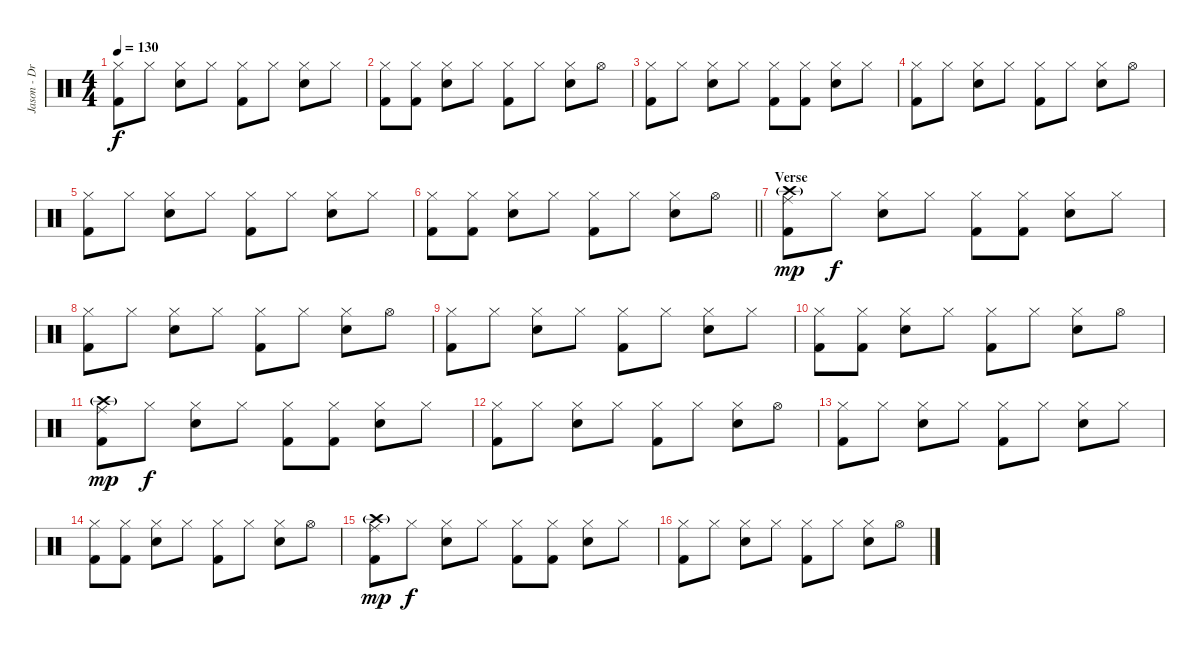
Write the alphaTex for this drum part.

\track ("Jason - Drums" "Jason - Dr") {instrument percussion}
\staff {score}
\articulation defaults
\ts (4 4)
\tempo 130
\clef neutral
\ks c
("Hi-Hat (closed)" "Kick (hit) 2").8{dy f} "Hi-Hat (closed)".8 ("Hi-Hat (closed)" "Snare (hit) 2").8 "Hi-Hat (closed)".8 ("Hi-Hat (closed)" "Kick (hit) 2").8 "Hi-Hat (closed)".8 ("Hi-Hat (closed)" "Snare (hit) 2").8 "Hi-Hat (closed)".8 |
("Hi-Hat (closed)" "Kick (hit) 2").8 ("Hi-Hat (closed)" "Kick (hit) 2").8 ("Hi-Hat (closed)" "Snare (hit) 2").8 "Hi-Hat (closed)".8 ("Hi-Hat (closed)" "Kick (hit) 2").8 "Hi-Hat (closed)".8 ("Hi-Hat (closed)" "Snare (hit) 2").8 "Hi-Hat (open)".8 |
("Hi-Hat (closed)" "Kick (hit) 2").8 "Hi-Hat (closed)".8 ("Hi-Hat (closed)" "Snare (hit) 2").8 "Hi-Hat (closed)".8 ("Hi-Hat (closed)" "Kick (hit) 2").8 ("Hi-Hat (closed)" "Kick (hit) 2").8 ("Hi-Hat (closed)" "Snare (hit) 2").8 "Hi-Hat (closed)".8 |
("Hi-Hat (closed)" "Kick (hit) 2").8 "Hi-Hat (closed)".8 ("Hi-Hat (closed)" "Snare (hit) 2").8 "Hi-Hat (closed)".8 ("Hi-Hat (closed)" "Kick (hit) 2").8 "Hi-Hat (closed)".8 ("Hi-Hat (closed)" "Snare (hit) 2").8 "Hi-Hat (open)".8 |
("Hi-Hat (closed)" "Kick (hit) 2").8 "Hi-Hat (closed)".8 ("Hi-Hat (closed)" "Snare (hit) 2").8 "Hi-Hat (closed)".8 ("Hi-Hat (closed)" "Kick (hit) 2").8 "Hi-Hat (closed)".8 ("Hi-Hat (closed)" "Snare (hit) 2").8 "Hi-Hat (closed)".8 |
\barLineRight lightlight
("Hi-Hat (closed)" "Kick (hit) 2").8 ("Hi-Hat (closed)" "Kick (hit) 2").8 ("Hi-Hat (closed)" "Snare (hit) 2").8 "Hi-Hat (closed)".8 ("Hi-Hat (closed)" "Kick (hit) 2").8 "Hi-Hat (closed)".8 ("Hi-Hat (closed)" "Snare (hit) 2").8 "Hi-Hat (open)".8 |
\section ("" "Verse")
("Crash high (hit)"{g} "Ride (middle)" "Kick (hit) 2").8{dy mp} "Hi-Hat (closed)".8{dy f} ("Hi-Hat (closed)" "Snare (hit) 2").8 "Hi-Hat (closed)".8 ("Hi-Hat (closed)" "Kick (hit) 2").8 ("Hi-Hat (closed)" "Kick (hit) 2").8 ("Hi-Hat (closed)" "Snare (hit) 2").8 "Hi-Hat (closed)".8 |
("Hi-Hat (closed)" "Kick (hit) 2").8 "Hi-Hat (closed)".8 ("Hi-Hat (closed)" "Snare (hit) 2").8 "Hi-Hat (closed)".8 ("Hi-Hat (closed)" "Kick (hit) 2").8 "Hi-Hat (closed)".8 ("Hi-Hat (closed)" "Snare (hit) 2").8 "Hi-Hat (open)".8 |
("Hi-Hat (closed)" "Kick (hit) 2").8 "Hi-Hat (closed)".8 ("Hi-Hat (closed)" "Snare (hit) 2").8 "Hi-Hat (closed)".8 ("Hi-Hat (closed)" "Kick (hit) 2").8 "Hi-Hat (closed)".8 ("Hi-Hat (closed)" "Snare (hit) 2").8 "Hi-Hat (closed)".8 |
("Hi-Hat (closed)" "Kick (hit) 2").8 ("Hi-Hat (closed)" "Kick (hit) 2").8 ("Hi-Hat (closed)" "Snare (hit) 2").8 "Hi-Hat (closed)".8 ("Hi-Hat (closed)" "Kick (hit) 2").8 "Hi-Hat (closed)".8 ("Hi-Hat (closed)" "Snare (hit) 2").8 "Hi-Hat (open)".8 |
("Crash high (hit)"{g} "Ride (middle)" "Kick (hit) 2").8{dy mp} "Hi-Hat (closed)".8{dy f} ("Hi-Hat (closed)" "Snare (hit) 2").8 "Hi-Hat (closed)".8 ("Hi-Hat (closed)" "Kick (hit) 2").8 ("Hi-Hat (closed)" "Kick (hit) 2").8 ("Hi-Hat (closed)" "Snare (hit) 2").8 "Hi-Hat (closed)".8 |
("Hi-Hat (closed)" "Kick (hit) 2").8 "Hi-Hat (closed)".8 ("Hi-Hat (closed)" "Snare (hit) 2").8 "Hi-Hat (closed)".8 ("Hi-Hat (closed)" "Kick (hit) 2").8 "Hi-Hat (closed)".8 ("Hi-Hat (closed)" "Snare (hit) 2").8 "Hi-Hat (open)".8 |
("Hi-Hat (closed)" "Kick (hit) 2").8 "Hi-Hat (closed)".8 ("Hi-Hat (closed)" "Snare (hit) 2").8 "Hi-Hat (closed)".8 ("Hi-Hat (closed)" "Kick (hit) 2").8 "Hi-Hat (closed)".8 ("Hi-Hat (closed)" "Snare (hit) 2").8 "Hi-Hat (closed)".8 |
("Hi-Hat (closed)" "Kick (hit) 2").8 ("Hi-Hat (closed)" "Kick (hit) 2").8 ("Hi-Hat (closed)" "Snare (hit) 2").8 "Hi-Hat (closed)".8 ("Hi-Hat (closed)" "Kick (hit) 2").8 "Hi-Hat (closed)".8 ("Hi-Hat (closed)" "Snare (hit) 2").8 "Hi-Hat (open)".8 |
("Crash high (hit)"{g} "Ride (middle)" "Kick (hit) 2").8{dy mp} "Hi-Hat (closed)".8{dy f} ("Hi-Hat (closed)" "Snare (hit) 2").8 "Hi-Hat (closed)".8 ("Hi-Hat (closed)" "Kick (hit) 2").8 ("Hi-Hat (closed)" "Kick (hit) 2").8 ("Hi-Hat (closed)" "Snare (hit) 2").8 "Hi-Hat (closed)".8 |
("Hi-Hat (closed)" "Kick (hit) 2").8 "Hi-Hat (closed)".8 ("Hi-Hat (closed)" "Snare (hit) 2").8 "Hi-Hat (closed)".8 ("Hi-Hat (closed)" "Kick (hit) 2").8 "Hi-Hat (closed)".8 ("Hi-Hat (closed)" "Snare (hit) 2").8 "Hi-Hat (open)".8
